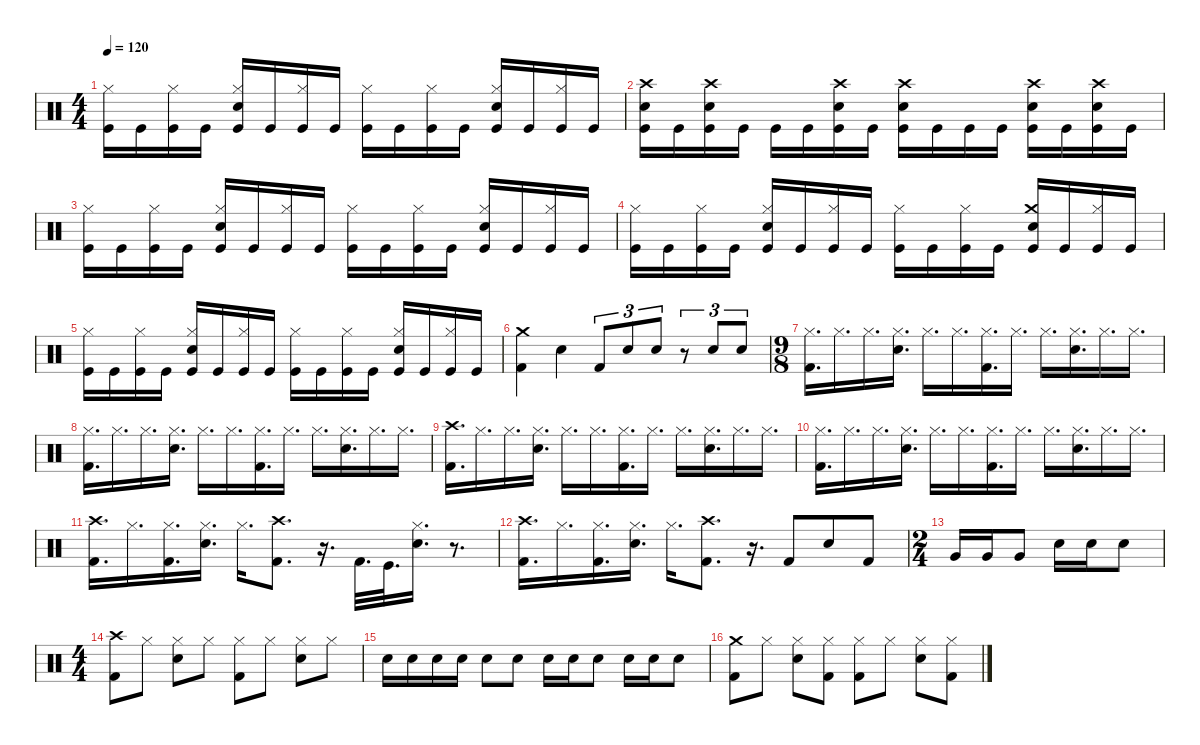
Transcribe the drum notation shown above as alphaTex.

\defaultSystemsLayout 4
\hideDynamics
\bracketExtendMode nobrackets
\singleTrackTrackNamePolicy hidden
\multiTrackTrackNamePolicy hidden
\otherSystemsTrackNameOrientation horizontal
\track ("Ulrich" "drm.") {instrument percussion}
\staff {score}
\articulation defaults
\ts (4 4)
\tempo 120
\clef neutral
\ks c
("Hi-Hat (closed)" "Kick (hit)").16{dy f beam Down} "Kick (hit)".16{dy fff beam Down} ("Hi-Hat (closed)" "Kick (hit)").16{dy f beam Down} "Kick (hit)".16{dy fff beam Down} ("Hi-Hat (closed)" "Kick (hit)" "Snare (hit) 2").16{dy f beam Up} "Kick (hit)".16{dy fff beam Up} ("Hi-Hat (closed)" "Kick (hit)").16{dy f beam Up} "Kick (hit)".16{dy fff beam Up} ("Hi-Hat (closed)" "Kick (hit)").16{dy f beam Down} "Kick (hit)".16{dy fff beam Down} ("Hi-Hat (closed)" "Kick (hit)").16{dy f beam Down} "Kick (hit)".16{dy fff beam Down} ("Hi-Hat (closed)" "Kick (hit)" "Snare (hit) 2").16{dy f beam Up} "Kick (hit)".16{dy fff beam Up} ("Hi-Hat (closed)" "Kick (hit)").16{dy f beam Up} "Kick (hit)".16{dy fff beam Up} |
("Crash high (hit)" "Kick (hit)" "Snare (hit) 2").16{dy f beam Down} "Kick (hit)".16{dy fff beam Down} ("Crash high (hit)" "Kick (hit)" "Snare (hit) 2").16{dy f beam Down} "Kick (hit)".16{dy fff beam Down} "Kick (hit)".16{beam Down} "Kick (hit)".16{beam Down} ("Crash high (hit)" "Kick (hit)" "Snare (hit) 2").16{dy f beam Down} "Kick (hit)".16{dy fff beam Down} ("Crash high (hit)" "Kick (hit)" "Snare (hit) 2").16{dy f beam Down} "Kick (hit)".16{dy fff beam Down} "Kick (hit)".16{beam Down} "Kick (hit)".16{beam Down} ("Crash high (hit)" "Kick (hit)" "Snare (hit) 2").16{dy f beam Down} "Kick (hit)".16{dy fff beam Down} ("Crash high (hit)" "Kick (hit)" "Snare (hit) 2").16{dy f beam Down} "Kick (hit)".16{dy fff beam Down} |
("Hi-Hat (closed)" "Kick (hit)").16{dy f beam Down} "Kick (hit)".16{dy fff beam Down} ("Hi-Hat (closed)" "Kick (hit)").16{dy f beam Down} "Kick (hit)".16{dy fff beam Down} ("Hi-Hat (closed)" "Kick (hit)" "Snare (hit) 2").16{dy f beam Up} "Kick (hit)".16{dy fff beam Up} ("Hi-Hat (closed)" "Kick (hit)").16{dy f beam Up} "Kick (hit)".16{dy fff beam Up} ("Hi-Hat (closed)" "Kick (hit)").16{dy f beam Down} "Kick (hit)".16{dy fff beam Down} ("Hi-Hat (closed)" "Kick (hit)").16{dy f beam Down} "Kick (hit)".16{dy fff beam Down} ("Hi-Hat (closed)" "Kick (hit)" "Snare (hit) 2").16{dy f beam Up} "Kick (hit)".16{dy fff beam Up} ("Hi-Hat (closed)" "Kick (hit)").16{dy f beam Up} "Kick (hit)".16{dy fff beam Up} |
("Hi-Hat (closed)" "Kick (hit)").16{dy f beam Down} "Kick (hit)".16{dy fff beam Down} ("Hi-Hat (closed)" "Kick (hit)").16{dy f beam Down} "Kick (hit)".16{dy fff beam Down} ("Hi-Hat (closed)" "Kick (hit)" "Snare (hit) 2").16{dy f beam Up} "Kick (hit)".16{dy fff beam Up} ("Hi-Hat (closed)" "Kick (hit)").16{dy f beam Up} "Kick (hit)".16{dy fff beam Up} ("Hi-Hat (closed)" "Kick (hit)").16{dy f beam Down} "Kick (hit)".16{dy fff beam Down} ("Hi-Hat (closed)" "Kick (hit)").16{dy f beam Down} "Kick (hit)".16{dy fff beam Down} ("Crash medium (hit)" "Kick (hit)" "Snare (hit) 2").16{dy f beam Up} "Kick (hit)".16{dy fff beam Up} ("Hi-Hat (closed)" "Kick (hit)").16{dy f beam Up} "Kick (hit)".16{dy fff beam Up} |
("Hi-Hat (closed)" "Kick (hit)").16{dy f beam Down} "Kick (hit)".16{dy fff beam Down} ("Hi-Hat (closed)" "Kick (hit)").16{dy f beam Down} "Kick (hit)".16{dy fff beam Down} ("Hi-Hat (closed)" "Kick (hit)" "Snare (hit) 2").16{dy f beam Up} "Kick (hit)".16{dy fff beam Up} ("Hi-Hat (closed)" "Kick (hit)").16{dy f beam Up} "Kick (hit)".16{dy fff beam Up} ("Hi-Hat (closed)" "Kick (hit)").16{dy f beam Down} "Kick (hit)".16{dy fff beam Down} ("Hi-Hat (closed)" "Kick (hit)").16{dy f beam Down} "Kick (hit)".16{dy fff beam Down} ("Hi-Hat (closed)" "Kick (hit)" "Snare (hit) 2").16{dy f beam Up} "Kick (hit)".16{dy fff beam Up} ("Hi-Hat (closed)" "Kick (hit)").16{dy f beam Up} "Kick (hit)".16{dy fff beam Up} |
("Crash medium (hit)" "Kick (hit) 2").4{dy f beam Down} "Snare (hit) 2".4{beam Down} "Kick (hit) 2".8{tu (3 2) beam Up} "Snare (hit) 2".8{tu (3 2) beam Up} "Snare (hit) 2".8{tu (3 2) beam Up} r.8{tu (3 2) beam Up} "Snare (hit) 2".8{tu (3 2) beam Down} "Snare (hit) 2".8{tu (3 2) beam Down} |
\ts (9 8)
("Hi-Hat (closed)" "Kick (hit) 2").16{d beam Down} "Hi-Hat (closed)".16{d beam Down} "Hi-Hat (closed)".16{d beam Down} ("Hi-Hat (closed)" "Snare (hit) 2").16{d beam Down} "Hi-Hat (closed)".16{d beam Down} "Hi-Hat (closed)".16{d beam Down} ("Hi-Hat (closed)" "Kick (hit) 2").16{d beam Down} "Hi-Hat (closed)".16{d beam Down} "Hi-Hat (closed)".16{d beam Down} ("Hi-Hat (closed)" "Snare (hit) 2").16{d beam Down} "Hi-Hat (closed)".16{d beam Down} "Hi-Hat (closed)".16{d beam Down} |
("Hi-Hat (closed)" "Kick (hit) 2").16{d beam Down} "Hi-Hat (closed)".16{d beam Down} "Hi-Hat (closed)".16{d beam Down} ("Hi-Hat (closed)" "Snare (hit) 2").16{d beam Down} "Hi-Hat (closed)".16{d beam Down} "Hi-Hat (closed)".16{d beam Down} ("Hi-Hat (closed)" "Kick (hit) 2").16{d beam Down} "Hi-Hat (closed)".16{d beam Down} "Hi-Hat (closed)".16{d beam Down} ("Hi-Hat (closed)" "Snare (hit) 2").16{d beam Down} "Hi-Hat (closed)".16{d beam Down} "Hi-Hat (closed)".16{d beam Down} |
("Crash high (hit)" "Kick (hit) 2").16{d beam Down} "Hi-Hat (closed)".16{d beam Down} "Hi-Hat (closed)".16{d beam Down} ("Hi-Hat (closed)" "Snare (hit) 2").16{d beam Down} "Hi-Hat (closed)".16{d beam Down} "Hi-Hat (closed)".16{d beam Down} ("Hi-Hat (closed)" "Kick (hit) 2").16{d beam Down} "Hi-Hat (closed)".16{d beam Down} "Hi-Hat (closed)".16{d beam Down} ("Hi-Hat (closed)" "Snare (hit) 2").16{d beam Down} "Hi-Hat (closed)".16{d beam Down} "Hi-Hat (closed)".16{d beam Down} |
("Hi-Hat (closed)" "Kick (hit) 2").16{d beam Down} "Hi-Hat (closed)".16{d beam Down} "Hi-Hat (closed)".16{d beam Down} ("Hi-Hat (closed)" "Snare (hit) 2").16{d beam Down} "Hi-Hat (closed)".16{d beam Down} "Hi-Hat (closed)".16{d beam Down} ("Hi-Hat (closed)" "Kick (hit) 2").16{d beam Down} "Hi-Hat (closed)".16{d beam Down} "Hi-Hat (closed)".16{d beam Down} ("Hi-Hat (closed)" "Snare (hit) 2").16{d beam Down} "Hi-Hat (closed)".16{d beam Down} "Hi-Hat (closed)".16{d beam Down} |
("Crash high (hit)" "Kick (hit) 2").16{d beam Down} "Hi-Hat (closed)".16{d beam Down} ("Hi-Hat (closed)" "Kick (hit) 2").16{d beam Down} ("Hi-Hat (closed)" "Snare (hit) 2").16{d beam Down} "Hi-Hat (closed)".16{d beam Down} ("Crash high (hit)" "Kick (hit) 2").8{d beam Down} r.16{d beam Down} "Kick (hit) 2".32{d beam Down} "Kick (hit)".32{d beam Down} ("Hi-Hat (closed)" "Snare (hit) 2").16{d beam Down} r.8{d beam Down} |
("Crash high (hit)" "Kick (hit) 2").16{d beam Down} "Hi-Hat (closed)".16{d beam Down} ("Hi-Hat (closed)" "Kick (hit) 2").16{d beam Down} ("Hi-Hat (closed)" "Snare (hit) 2").16{d beam Down} "Hi-Hat (closed)".16{d beam Down} ("Crash high (hit)" "Kick (hit) 2").8{d beam Down} r.16{d beam Down} "Kick (hit) 2".8{beam Up} "Snare (hit) 2".8{beam Up} "Kick (hit) 2".8{beam Up} |
\ts (2 4)
"Very Low Tom (hit)".16{beam Up} "Very Low Tom (hit)".16{beam Up} "Very Low Tom (hit)".8{beam Up} "Snare (hit) 2".16{beam Down} "Snare (hit) 2".16{beam Down} "Snare (hit) 2".8{beam Down} |
\ts (4 4)
("Crash high (hit)" "Kick (hit) 2").8{beam Down} "Hi-Hat (closed)".8{beam Down} ("Hi-Hat (closed)" "Snare (hit) 2").8{beam Down} "Hi-Hat (closed)".8{beam Down} ("Hi-Hat (closed)" "Kick (hit) 2").8{beam Down} "Hi-Hat (closed)".8{beam Down} ("Hi-Hat (closed)" "Snare (hit) 2").8{beam Down} "Hi-Hat (closed)".8{beam Down} |
"Snare (hit) 2".16{beam Down} "Snare (hit) 2".16{beam Down} "Snare (hit) 2".16{beam Down} "Snare (hit) 2".16{beam Down} "Snare (hit) 2".8{beam Down} "Snare (hit) 2".8{beam Down} "Snare (hit) 2".16{beam Down} "Snare (hit) 2".16{beam Down} "Snare (hit) 2".8{beam Down} "Snare (hit) 2".16{beam Down} "Snare (hit) 2".16{beam Down} "Snare (hit) 2".8{beam Down} |
("Crash medium (hit)" "Kick (hit) 2").8{beam Down} "Hi-Hat (closed)".8{beam Down} ("Hi-Hat (closed)" "Snare (hit) 2").8{beam Down} ("Hi-Hat (closed)" "Kick (hit) 2").8{beam Down} ("Hi-Hat (closed)" "Kick (hit) 2").8{beam Down} "Hi-Hat (closed)".8{beam Down} ("Hi-Hat (closed)" "Snare (hit) 2").8{beam Down} ("Hi-Hat (closed)" "Kick (hit) 2").8{beam Down}
